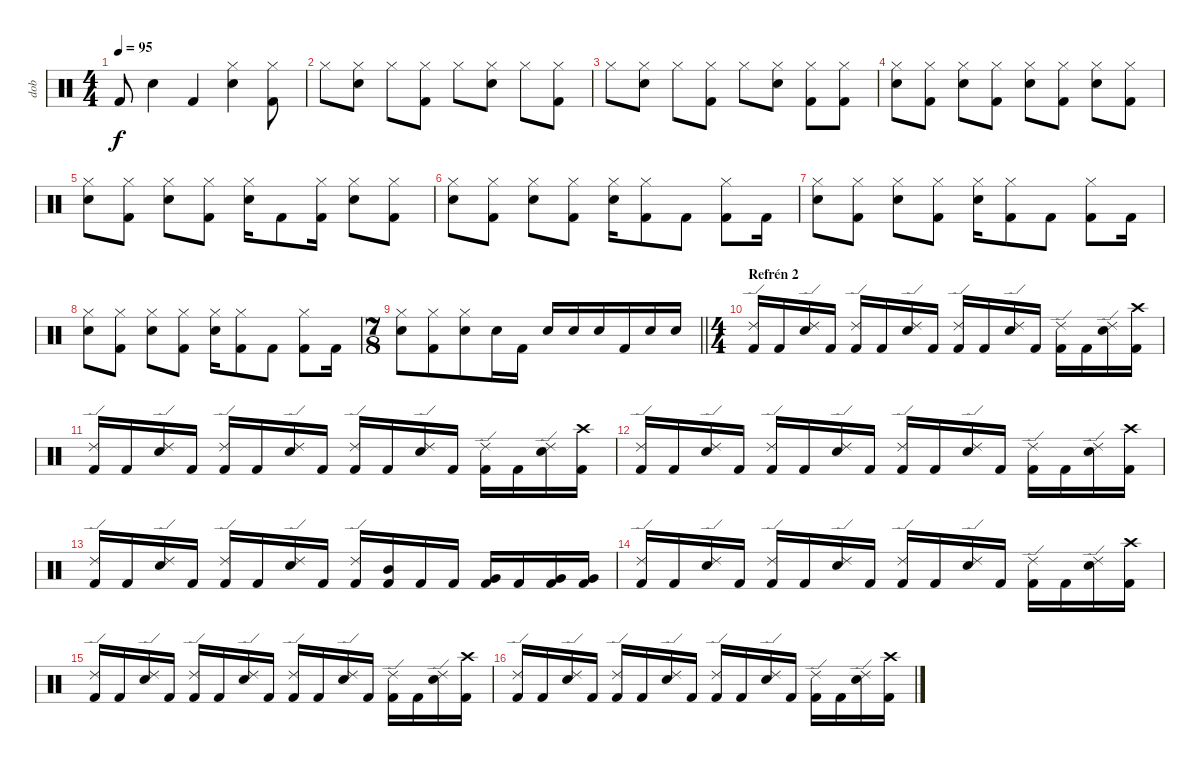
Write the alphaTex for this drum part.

\track ("dob" "dob") {instrument percussion}
\staff {score}
\articulation defaults
\ts (4 4)
\tempo 95
\clef neutral
\ks c "Kick (hit) 2".8{dy f} "Electric Snare (hit)".4 "Kick (hit) 2".4
("Hi-Hat (closed)" "Electric Snare (hit)").4 ("Hi-Hat (closed)" "Kick (hit) 2").8 |
"Hi-Hat (closed)".8 ("Hi-Hat (closed)" "Electric Snare (hit)").8 "Hi-Hat (closed)".8 ("Hi-Hat (closed)" "Kick (hit) 2").8 "Hi-Hat (closed)".8 ("Hi-Hat (closed)" "Electric Snare (hit)").8 "Hi-Hat (closed)".8 ("Hi-Hat (closed)" "Kick (hit) 2").8 |
"Hi-Hat (closed)".8 ("Hi-Hat (closed)" "Electric Snare (hit)").8 "Hi-Hat (closed)".8 ("Hi-Hat (closed)" "Kick (hit) 2").8 "Hi-Hat (closed)".8 ("Hi-Hat (closed)" "Electric Snare (hit)").8 ("Hi-Hat (closed)" "Kick (hit) 2").8 ("Hi-Hat (closed)" "Kick (hit) 2").8 |
("Hi-Hat (closed)" "Electric Snare (hit)").8 ("Hi-Hat (closed)" "Kick (hit) 2").8 ("Hi-Hat (closed)" "Electric Snare (hit)").8 ("Hi-Hat (closed)" "Kick (hit) 2").8 ("Hi-Hat (closed)" "Electric Snare (hit)").8 ("Hi-Hat (closed)" "Kick (hit) 2").8 ("Hi-Hat (closed)" "Electric Snare (hit)").8 ("Hi-Hat (closed)" "Kick (hit) 2").8 |
("Hi-Hat (closed)" "Electric Snare (hit)").8 ("Hi-Hat (closed)" "Kick (hit) 2").8 ("Hi-Hat (closed)" "Electric Snare (hit)").8 ("Hi-Hat (closed)" "Kick (hit) 2").8 ("Hi-Hat (closed)" "Electric Snare (hit)").16 "Kick (hit) 2".8 ("Hi-Hat (closed)" "Kick (hit) 2").16 ("Hi-Hat (closed)" "Electric Snare (hit)").8 ("Hi-Hat (closed)" "Kick (hit) 2").8 |
("Hi-Hat (closed)" "Electric Snare (hit)").8 ("Hi-Hat (closed)" "Kick (hit) 2").8 ("Hi-Hat (closed)" "Electric Snare (hit)").8 ("Hi-Hat (closed)" "Kick (hit) 2").8 ("Hi-Hat (closed)" "Electric Snare (hit)").16 ("Hi-Hat (closed)" "Kick (hit) 2").8 "Kick (hit) 2".8 ("Hi-Hat (closed)" "Kick (hit) 2").8 "Kick (hit) 2".16 |
("Hi-Hat (closed)" "Electric Snare (hit)").8 ("Hi-Hat (closed)" "Kick (hit) 2").8 ("Hi-Hat (closed)" "Electric Snare (hit)").8 ("Hi-Hat (closed)" "Kick (hit) 2").8 ("Hi-Hat (closed)" "Electric Snare (hit)").16 ("Hi-Hat (closed)" "Kick (hit) 2").8 "Kick (hit) 2".8 ("Hi-Hat (closed)" "Kick (hit) 2").8 "Kick (hit) 2".16 |
("Hi-Hat (closed)" "Electric Snare (hit)").8 ("Hi-Hat (closed)" "Kick (hit) 2").8 ("Hi-Hat (closed)" "Electric Snare (hit)").8 ("Hi-Hat (closed)" "Kick (hit) 2").8 ("Hi-Hat (closed)" "Electric Snare (hit)").16 ("Hi-Hat (closed)" "Kick (hit) 2").8 "Kick (hit) 2".8 ("Hi-Hat (closed)" "Kick (hit) 2").8 "Kick (hit) 2".16 |
\ts (7 8)
\barLineRight lightlight
("Hi-Hat (closed)" "Electric Snare (hit)").8 ("Hi-Hat (closed)" "Kick (hit) 2").8 ("Hi-Hat (closed)" "Electric Snare (hit)").8 "Electric Snare (hit)".16 "Kick (hit) 2".16 "Electric Snare (hit)".16 "Electric Snare (hit)".16 "Electric Snare (hit)".16 "Kick (hit) 2".16 "Electric Snare (hit)".16 "Electric Snare (hit)".16 |
\ts (4 4)
\section ("" "Refrén 2")
("Ride (edge) 2" "Kick (hit) 2").16 "Kick (hit) 2".16 ("Ride (edge) 2" "Electric Snare (hit)").16 "Kick (hit) 2".16 ("Ride (edge) 2" "Kick (hit) 2").16 "Kick (hit) 2".16 ("Ride (edge) 2" "Electric Snare (hit)").16 "Kick (hit) 2".16 ("Ride (edge) 2" "Kick (hit) 2").16 "Kick (hit) 2".16 ("Ride (edge) 2" "Electric Snare (hit)").16 "Kick (hit) 2".16 ("Ride (edge) 2" "Kick (hit) 2").16 "Kick (hit) 2".16 ("Ride (edge) 2" "Electric Snare (hit)").16 ("Crash high (hit)" "Kick (hit) 2").16 |
("Ride (edge) 2" "Kick (hit) 2").16 "Kick (hit) 2".16 ("Ride (edge) 2" "Electric Snare (hit)").16 "Kick (hit) 2".16 ("Ride (edge) 2" "Kick (hit) 2").16 "Kick (hit) 2".16 ("Ride (edge) 2" "Electric Snare (hit)").16 "Kick (hit) 2".16 ("Ride (edge) 2" "Kick (hit) 2").16 "Kick (hit) 2".16 ("Ride (edge) 2" "Electric Snare (hit)").16 "Kick (hit) 2".16 ("Ride (edge) 2" "Kick (hit) 2").16 "Kick (hit) 2".16 ("Ride (edge) 2" "Electric Snare (hit)").16 ("Crash high (hit)" "Kick (hit) 2").16 |
("Ride (edge) 2" "Kick (hit) 2").16 "Kick (hit) 2".16 ("Ride (edge) 2" "Electric Snare (hit)").16 "Kick (hit) 2".16 ("Ride (edge) 2" "Kick (hit) 2").16 "Kick (hit) 2".16 ("Ride (edge) 2" "Electric Snare (hit)").16 "Kick (hit) 2".16 ("Ride (edge) 2" "Kick (hit) 2").16 "Kick (hit) 2".16 ("Ride (edge) 2" "Electric Snare (hit)").16 "Kick (hit) 2".16 ("Ride (edge) 2" "Kick (hit) 2").16 "Kick (hit) 2".16 ("Ride (edge) 2" "Electric Snare (hit)").16 ("Crash high (hit)" "Kick (hit) 2").16 |
("Ride (edge) 2" "Kick (hit) 2").16 "Kick (hit) 2".16 ("Ride (edge) 2" "Electric Snare (hit)").16 "Kick (hit) 2".16 ("Ride (edge) 2" "Kick (hit) 2").16 "Kick (hit) 2".16 ("Ride (edge) 2" "Electric Snare (hit)").16 "Kick (hit) 2".16 ("Ride (edge) 2" "Kick (hit) 2").16 ("Mid Tom (hit)" "Kick (hit) 2").16 "Kick (hit) 2".16 "Kick (hit) 2".16 ("Very Low Tom (hit)" "Kick (hit) 2").16 "Kick (hit) 2".16 ("Very Low Tom (hit)" "Kick (hit) 2").16 ("Very Low Tom (hit)" "Kick (hit) 2").16 |
("Ride (edge) 2" "Kick (hit) 2").16 "Kick (hit) 2".16 ("Ride (edge) 2" "Electric Snare (hit)").16 "Kick (hit) 2".16 ("Ride (edge) 2" "Kick (hit) 2").16 "Kick (hit) 2".16 ("Ride (edge) 2" "Electric Snare (hit)").16 "Kick (hit) 2".16 ("Ride (edge) 2" "Kick (hit) 2").16 "Kick (hit) 2".16 ("Ride (edge) 2" "Electric Snare (hit)").16 "Kick (hit) 2".16 ("Ride (edge) 2" "Kick (hit) 2").16 "Kick (hit) 2".16 ("Ride (edge) 2" "Electric Snare (hit)").16 ("Crash high (hit)" "Kick (hit) 2").16 |
("Ride (edge) 2" "Kick (hit) 2").16 "Kick (hit) 2".16 ("Ride (edge) 2" "Electric Snare (hit)").16 "Kick (hit) 2".16 ("Ride (edge) 2" "Kick (hit) 2").16 "Kick (hit) 2".16 ("Ride (edge) 2" "Electric Snare (hit)").16 "Kick (hit) 2".16 ("Ride (edge) 2" "Kick (hit) 2").16 "Kick (hit) 2".16 ("Ride (edge) 2" "Electric Snare (hit)").16 "Kick (hit) 2".16 ("Ride (edge) 2" "Kick (hit) 2").16 "Kick (hit) 2".16 ("Ride (edge) 2" "Electric Snare (hit)").16 ("Crash high (hit)" "Kick (hit) 2").16 |
("Ride (edge) 2" "Kick (hit) 2").16 "Kick (hit) 2".16 ("Ride (edge) 2" "Electric Snare (hit)").16 "Kick (hit) 2".16 ("Ride (edge) 2" "Kick (hit) 2").16 "Kick (hit) 2".16 ("Ride (edge) 2" "Electric Snare (hit)").16 "Kick (hit) 2".16 ("Ride (edge) 2" "Kick (hit) 2").16 "Kick (hit) 2".16 ("Ride (edge) 2" "Electric Snare (hit)").16 "Kick (hit) 2".16 ("Ride (edge) 2" "Kick (hit) 2").16 "Kick (hit) 2".16 ("Ride (edge) 2" "Electric Snare (hit)").16 ("Crash high (hit)" "Kick (hit) 2").16
